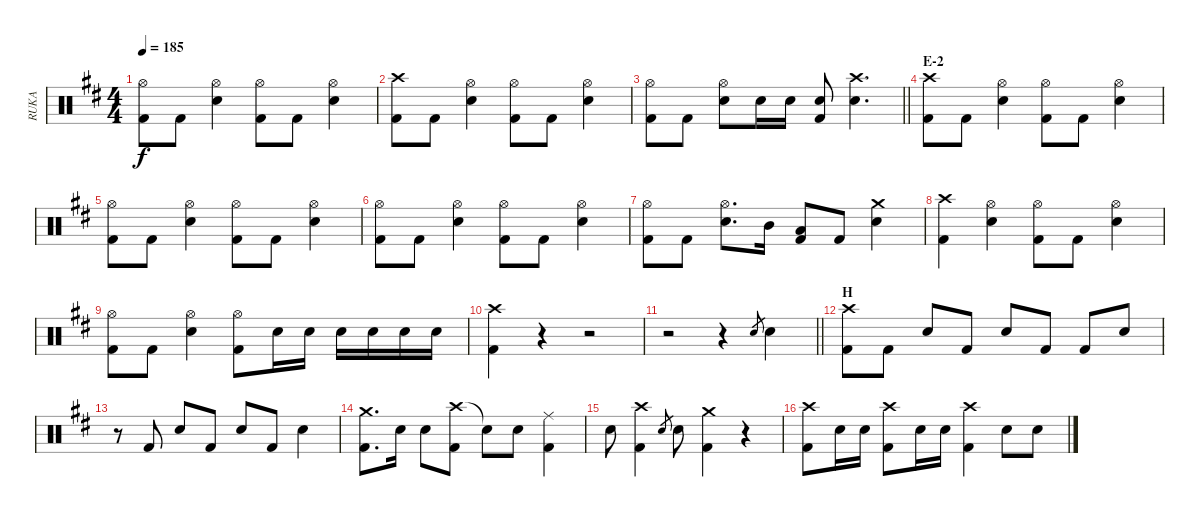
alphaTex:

\track ("RUKA" "RUKA") {instrument percussion}
\staff {score}
\articulation defaults
\ts (4 4)
\tempo 185
\clef neutral
\ks d
("Hi-Hat (open)" "Kick (hit) 2").8{dy f} "Kick (hit) 2".8 ("Hi-Hat (open)" "Snare (hit) 2").4 ("Hi-Hat (open)" "Kick (hit) 2").8 "Kick (hit) 2".8 ("Hi-Hat (open)" "Snare (hit) 2").4 |
("Crash high (hit)" "Kick (hit) 2").8 "Kick (hit) 2".8 ("Hi-Hat (open)" "Snare (hit) 2").4 ("Hi-Hat (open)" "Kick (hit) 2").8 "Kick (hit) 2".8 ("Hi-Hat (open)" "Snare (hit) 2").4 |
\barLineRight lightlight
("Hi-Hat (open)" "Kick (hit) 2").8 "Kick (hit) 2".8 ("Hi-Hat (open)" "Snare (hit) 2").8 "Snare (hit) 2".16 "Snare (hit) 2".16 ("Snare (hit) 2" "Kick (hit) 2").8 ("Crash high (hit)" "Snare (hit) 2").4{d} |
\section ("" "E-2")
("Crash high (hit)" "Kick (hit) 2").8 "Kick (hit) 2".8 ("Hi-Hat (open)" "Snare (hit) 2").4 ("Hi-Hat (open)" "Kick (hit) 2").8 "Kick (hit) 2".8 ("Hi-Hat (open)" "Snare (hit) 2").4 |
("Hi-Hat (open)" "Kick (hit) 2").8 "Kick (hit) 2".8 ("Hi-Hat (open)" "Snare (hit) 2").4 ("Hi-Hat (open)" "Kick (hit) 2").8 "Kick (hit) 2".8 ("Hi-Hat (open)" "Snare (hit) 2").4 |
("Hi-Hat (open)" "Kick (hit) 2").8 "Kick (hit) 2".8 ("Hi-Hat (open)" "Snare (hit) 2").4 ("Hi-Hat (open)" "Kick (hit) 2").8 "Kick (hit) 2".8 ("Hi-Hat (open)" "Snare (hit) 2").4 |
("Hi-Hat (open)" "Kick (hit) 2").8 "Kick (hit) 2".8 ("Hi-Hat (open)" "Snare (hit) 2").8{d} "Mid Tom (hit)".16 ("Low Tom (hit)" "Kick (hit) 2").8 "Kick (hit) 2".8 ("Crash medium (hit)" "Snare (hit) 2").4 |
("Crash high (hit)" "Kick (hit) 2").4 ("Hi-Hat (open)" "Snare (hit) 2").4 ("Hi-Hat (open)" "Kick (hit) 2").8 "Kick (hit) 2".8 ("Hi-Hat (open)" "Snare (hit) 2").4 |
("Hi-Hat (open)" "Kick (hit) 2").8 "Kick (hit) 2".8 ("Hi-Hat (open)" "Snare (hit) 2").4 ("Hi-Hat (open)" "Kick (hit) 2").8 "Snare (hit) 2".16 "Snare (hit) 2".16 "Snare (hit) 2".16 "Snare (hit) 2".16 "Snare (hit) 2".16 "Snare (hit) 2".16 |
("Crash high (hit)" "Kick (hit) 2").4 r.4 r.2 |
\barLineRight lightlight
r.2 r.4 "Snare (hit) 2".8{gr} "Snare (hit) 2".4 |
\section ("" "H")
("Crash high (hit)" "Kick (hit) 2").8 "Kick (hit) 2".8 "Snare (hit) 2".8 "Kick (hit) 2".8 "Snare (hit) 2".8 "Kick (hit) 2".8 "Kick (hit) 2".8 "Snare (hit) 2".8 |
r.8 "Kick (hit) 2".8 "Snare (hit) 2".8 "Kick (hit) 2".8 "Snare (hit) 2".8 "Kick (hit) 2".8 "Snare (hit) 2".4 |
("Crash medium (hit)" "Kick (hit) 2").8{d} "Snare (hit) 2".16 "Snare (hit) 2".8 ("Crash high (hit)" "Kick (hit) 2").8 "Snare (hit)"{t}.8 "Snare (hit) 2".8 ("Ride (middle)" "Kick (hit) 2").4 |
"Snare (hit) 2".8 ("Crash high (hit)" "Kick (hit) 2").4 "Snare (hit) 2".8{gr} "Snare (hit) 2".8 ("Crash medium (hit)" "Kick (hit) 2").4 r.4 |
("Crash high (hit)" "Kick (hit) 2").8 "Snare (hit) 2".16 "Snare (hit) 2".16 ("Crash high (hit)" "Kick (hit) 2").8 "Snare (hit) 2".16 "Snare (hit) 2".16 ("Crash high (hit)" "Kick (hit) 2").4 "Snare (hit) 2".8 "Snare (hit) 2".8
